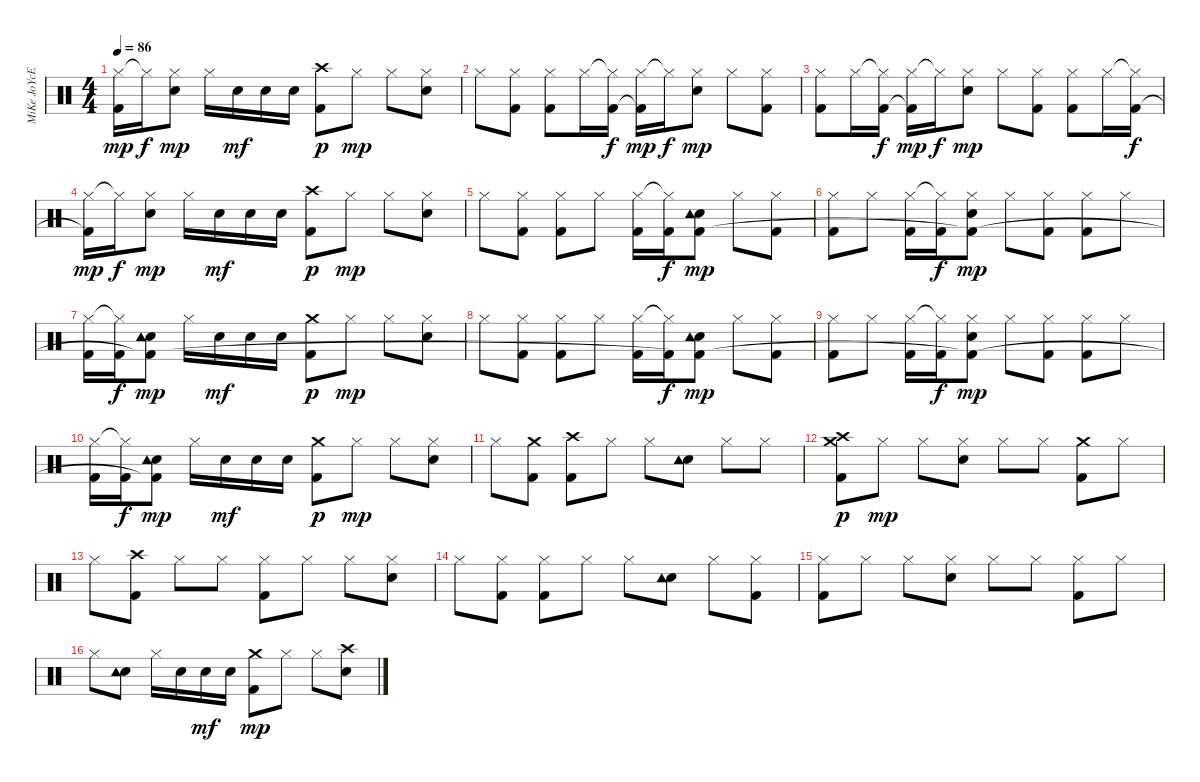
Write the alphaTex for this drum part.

\track ("MiKe JoYcE" "MiKe JoYcE") {instrument percussion}
\staff {score}
\articulation defaults
\ts (4 4)
\tempo 86
\clef neutral
\ks c
("Hi-Hat (closed)" "Kick (hit) 2"{t}).16{dy mp} "Hi-Hat (closed)"{t}.16{dy f} ("Hi-Hat (closed)" "Electric Snare (hit)").8{dy mp} "Hi-Hat (closed)".16 "Electric Snare (hit)".16{dy mf} "Electric Snare (hit)".16 "Electric Snare (hit)".16 ("Crash high (hit)" "Kick (hit) 2").8{dy p} "Hi-Hat (closed)".8{dy mp} "Hi-Hat (closed)".8 ("Hi-Hat (closed)" "Electric Snare (hit)").8 |
"Hi-Hat (closed)".8 ("Hi-Hat (closed)" "Kick (hit) 2").8 ("Hi-Hat (closed)" "Kick (hit) 2").8 "Hi-Hat (closed)".16 ("Hi-Hat (closed)"{t} "Kick (hit) 2").16{dy f} ("Hi-Hat (closed)" "Kick (hit) 2"{t}).16{dy mp} "Hi-Hat (closed)"{t}.16{dy f} ("Hi-Hat (closed)" "Electric Snare (hit)").8{dy mp} "Hi-Hat (closed)".8 ("Hi-Hat (closed)" "Kick (hit) 2").8 |
("Hi-Hat (closed)" "Kick (hit) 2").8 "Hi-Hat (closed)".16 ("Hi-Hat (closed)"{t} "Kick (hit) 2").16{dy f} ("Hi-Hat (closed)" "Kick (hit) 2"{t}).16{dy mp} "Hi-Hat (closed)"{t}.16{dy f} ("Hi-Hat (closed)" "Electric Snare (hit)").8{dy mp} "Hi-Hat (closed)".8 ("Hi-Hat (closed)" "Kick (hit) 2").8 ("Hi-Hat (closed)" "Kick (hit) 2").8 "Hi-Hat (closed)".16 ("Hi-Hat (closed)"{t} "Kick (hit) 2").16{dy f} |
("Hi-Hat (closed)" "Kick (hit) 2"{t}).16{dy mp} "Hi-Hat (closed)"{t}.16{dy f} ("Hi-Hat (closed)" "Electric Snare (hit)").8{dy mp} "Hi-Hat (closed)".16 "Electric Snare (hit)".16{dy mf} "Electric Snare (hit)".16 "Electric Snare (hit)".16 ("Crash high (hit)" "Kick (hit) 2").8{dy p} "Hi-Hat (closed)".8{dy mp} "Hi-Hat (closed)".8 ("Hi-Hat (closed)" "Electric Snare (hit)").8 |
"Hi-Hat (closed)".8 ("Hi-Hat (closed)" "Kick (hit) 2").8 ("Hi-Hat (closed)" "Kick (hit) 2").8 "Hi-Hat (closed)".8 ("Hi-Hat (closed)" "Kick (hit) 2").16 ("Hi-Hat (closed)"{t} "Kick (hit) 2").16{dy f} ("Electric Snare (hit)" "Tambourine (hit)" "Kick (hit) 2").8{dy mp} "Hi-Hat (closed)".8 ("Hi-Hat (closed)" "Kick (hit) 2").8 |
("Hi-Hat (closed)" "Kick (hit) 2").8 "Hi-Hat (closed)".8 ("Hi-Hat (closed)" "Kick (hit) 2").16 ("Hi-Hat (closed)"{t} "Kick (hit) 2").16{dy f} ("Hi-Hat (closed)" "Electric Snare (hit)" "Kick (hit) 2"{t}).8{dy mp} "Hi-Hat (closed)".8 ("Hi-Hat (closed)" "Kick (hit) 2").8 ("Hi-Hat (closed)" "Kick (hit) 2").8 "Hi-Hat (closed)".8 |
("Hi-Hat (closed)" "Kick (hit) 2").16 ("Hi-Hat (closed)"{t} "Kick (hit) 2").16{dy f} ("Electric Snare (hit)" "Tambourine (hit)" "Kick (hit) 2"{t}).8{dy mp} "Hi-Hat (closed)".16 "Electric Snare (hit)".16{dy mf} "Electric Snare (hit)".16 "Electric Snare (hit)".16 ("Crash medium (hit)" "Kick (hit) 2").8{dy p} "Hi-Hat (closed)".8{dy mp} "Hi-Hat (closed)".8 ("Hi-Hat (closed)" "Electric Snare (hit)").8 |
"Hi-Hat (closed)".8 ("Hi-Hat (closed)" "Kick (hit) 2").8 ("Hi-Hat (closed)" "Kick (hit) 2").8 "Hi-Hat (closed)".8 ("Hi-Hat (closed)" "Kick (hit) 2").16 ("Hi-Hat (closed)"{t} "Kick (hit) 2").16{dy f} ("Electric Snare (hit)" "Tambourine (hit)" "Kick (hit) 2"{t}).8{dy mp} "Hi-Hat (closed)".8 ("Hi-Hat (closed)" "Kick (hit) 2").8 |
("Hi-Hat (closed)" "Kick (hit) 2").8 "Hi-Hat (closed)".8 ("Hi-Hat (closed)" "Kick (hit) 2").16 ("Hi-Hat (closed)"{t} "Kick (hit) 2").16{dy f} ("Hi-Hat (closed)" "Electric Snare (hit)" "Kick (hit) 2"{t}).8{dy mp} "Hi-Hat (closed)".8 ("Hi-Hat (closed)" "Kick (hit) 2").8 ("Hi-Hat (closed)" "Kick (hit) 2").8 "Hi-Hat (closed)".8 |
("Hi-Hat (closed)" "Kick (hit) 2").16 ("Hi-Hat (closed)"{t} "Kick (hit) 2").16{dy f} ("Electric Snare (hit)" "Tambourine (hit)" "Kick (hit) 2"{t}).8{dy mp} "Hi-Hat (closed)".16 "Electric Snare (hit)".16{dy mf} "Electric Snare (hit)".16 "Electric Snare (hit)".16 ("Crash medium (hit)" "Kick (hit) 2").8{dy p} "Hi-Hat (closed)".8{dy mp} "Hi-Hat (closed)".8 ("Hi-Hat (closed)" "Electric Snare (hit)").8 |
"Hi-Hat (closed)".8 ("Crash medium (hit)" "Kick (hit) 2").8 ("Crash high (hit)" "Kick (hit) 2").8 "Hi-Hat (closed)".8 "Hi-Hat (closed)".8 ("Electric Snare (hit)" "Tambourine (hit)").8 "Hi-Hat (closed)".8 "Hi-Hat (closed)".8 |
("Crash high (hit)" "Crash medium (hit)" "Kick (hit) 2").8{dy p} "Hi-Hat (closed)".8{dy mp} "Hi-Hat (closed)".8 ("Hi-Hat (closed)" "Electric Snare (hit)").8 "Hi-Hat (closed)".8 "Hi-Hat (closed)".8 ("Crash medium (hit)" "Kick (hit) 2").8 "Hi-Hat (closed)".8 |
"Hi-Hat (closed)".8 ("Crash high (hit)" "Kick (hit) 2").8 "Hi-Hat (closed)".8 "Hi-Hat (closed)".8 ("Hi-Hat (closed)" "Kick (hit) 2").8 "Hi-Hat (closed)".8 "Hi-Hat (closed)".8 ("Hi-Hat (closed)" "Electric Snare (hit)").8 |
"Hi-Hat (closed)".8 ("Hi-Hat (closed)" "Kick (hit) 2").8 ("Hi-Hat (closed)" "Kick (hit) 2").8 "Hi-Hat (closed)".8 "Hi-Hat (closed)".8 ("Electric Snare (hit)" "Tambourine (hit)").8 "Hi-Hat (closed)".8 ("Hi-Hat (closed)" "Kick (hit) 2").8 |
("Hi-Hat (closed)" "Kick (hit) 2").8 "Hi-Hat (closed)".8 "Hi-Hat (closed)".8 ("Hi-Hat (closed)" "Electric Snare (hit)").8 "Hi-Hat (closed)".8 "Hi-Hat (closed)".8 ("Hi-Hat (closed)" "Kick (hit) 2").8 "Hi-Hat (closed)".8 |
"Hi-Hat (closed)".8 ("Electric Snare (hit)" "Tambourine (hit)").8 "Hi-Hat (closed)".16 "Electric Snare (hit)".16 "Electric Snare (hit)".16{dy mf} "Electric Snare (hit)".16 ("Crash medium (hit)" "Kick (hit) 2").8{dy mp} "Hi-Hat (closed)".8 "Hi-Hat (closed)".8 ("Crash high (hit)" "Electric Snare (hit)").8
